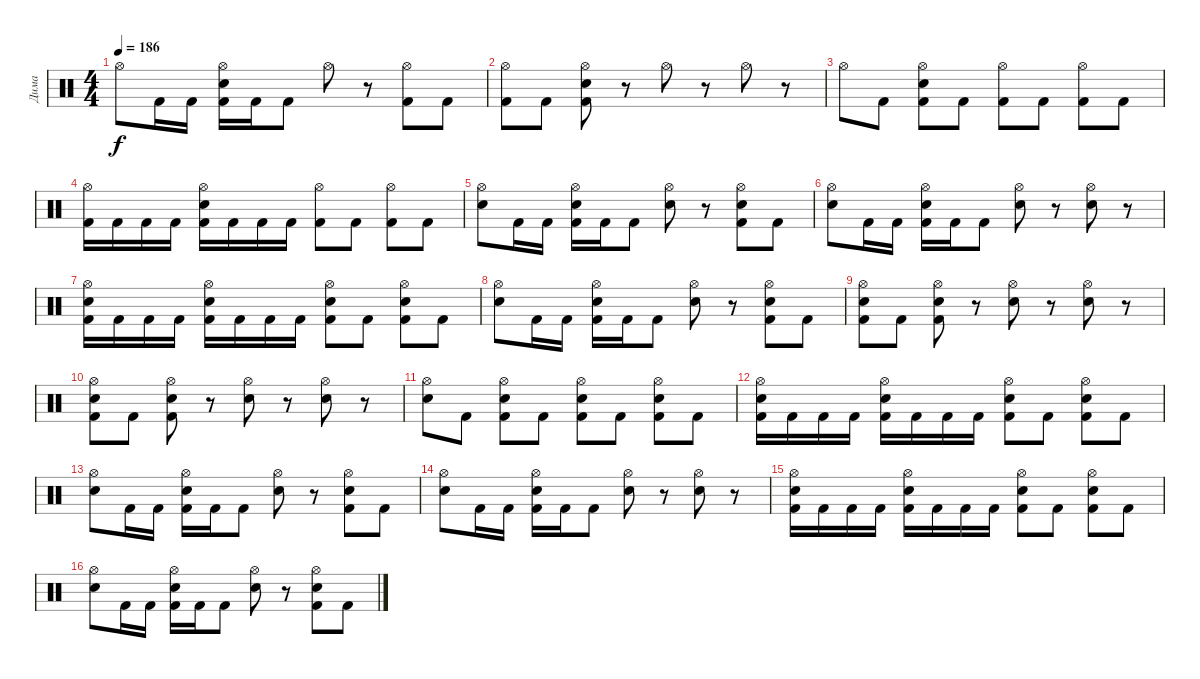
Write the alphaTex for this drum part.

\track ("Дима" "Дима") {instrument percussion}
\staff {score}
\articulation defaults
\ts (4 4)
\tempo 186
\clef neutral
\ks c "Hi-Hat (open)".8{dy f} "Kick (hit) 2".16 "Kick (hit) 2".16
("Hi-Hat (open)" "Snare (hit) 2" "Kick (hit) 2").16 "Kick (hit) 2".16 "Kick (hit) 2".8 "Hi-Hat (open)".8 r.8 ("Hi-Hat (open)" "Kick (hit) 2").8 "Kick (hit) 2".8 |
("Hi-Hat (open)" "Kick (hit) 2").8 "Kick (hit) 2".8 ("Hi-Hat (open)" "Snare (hit) 2" "Kick (hit) 2").8 r.8 "Hi-Hat (open)".8 r.8 "Hi-Hat (open)".8 r.8 |
"Hi-Hat (open)".8 "Kick (hit) 2".8 ("Hi-Hat (open)" "Snare (hit) 2" "Kick (hit) 2").8 "Kick (hit) 2".8 ("Hi-Hat (open)" "Kick (hit) 2").8 "Kick (hit) 2".8 ("Hi-Hat (open)" "Kick (hit) 2").8 "Kick (hit) 2".8 |
("Hi-Hat (open)" "Kick (hit) 2").16 "Kick (hit) 2".16 "Kick (hit) 2".16 "Kick (hit) 2".16 ("Hi-Hat (open)" "Snare (hit) 2" "Kick (hit) 2").16 "Kick (hit) 2".16 "Kick (hit) 2".16 "Kick (hit) 2".16 ("Hi-Hat (open)" "Kick (hit) 2").8 "Kick (hit) 2".8 ("Hi-Hat (open)" "Kick (hit) 2").8 "Kick (hit) 2".8 |
("Hi-Hat (open)" "Snare (hit) 2").8 "Kick (hit) 2".16 "Kick (hit) 2".16 ("Hi-Hat (open)" "Snare (hit) 2" "Kick (hit) 2").16 "Kick (hit) 2".16 "Kick (hit) 2".8 ("Hi-Hat (open)" "Snare (hit) 2").8 r.8 ("Hi-Hat (open)" "Snare (hit) 2" "Kick (hit) 2").8 "Kick (hit) 2".8 |
("Hi-Hat (open)" "Snare (hit) 2").8 "Kick (hit) 2".16 "Kick (hit) 2".16 ("Hi-Hat (open)" "Snare (hit) 2" "Kick (hit) 2").16 "Kick (hit) 2".16 "Kick (hit) 2".8 ("Hi-Hat (open)" "Snare (hit) 2").8 r.8 ("Hi-Hat (open)" "Snare (hit) 2").8 r.8 |
("Hi-Hat (open)" "Snare (hit) 2" "Kick (hit) 2").16 "Kick (hit) 2".16 "Kick (hit) 2".16 "Kick (hit) 2".16 ("Hi-Hat (open)" "Snare (hit) 2" "Kick (hit) 2").16 "Kick (hit) 2".16 "Kick (hit) 2".16 "Kick (hit) 2".16 ("Hi-Hat (open)" "Snare (hit) 2" "Kick (hit) 2").8 "Kick (hit) 2".8 ("Hi-Hat (open)" "Snare (hit) 2" "Kick (hit) 2").8 "Kick (hit) 2".8 |
("Hi-Hat (open)" "Snare (hit) 2").8 "Kick (hit) 2".16 "Kick (hit) 2".16 ("Hi-Hat (open)" "Snare (hit) 2" "Kick (hit) 2").16 "Kick (hit) 2".16 "Kick (hit) 2".8 ("Hi-Hat (open)" "Snare (hit) 2").8 r.8 ("Hi-Hat (open)" "Snare (hit) 2" "Kick (hit) 2").8 "Kick (hit) 2".8 |
("Hi-Hat (open)" "Snare (hit) 2" "Kick (hit) 2").8 "Kick (hit) 2".8 ("Hi-Hat (open)" "Snare (hit) 2" "Kick (hit) 2").8 r.8 ("Hi-Hat (open)" "Snare (hit) 2").8 r.8 ("Hi-Hat (open)" "Snare (hit) 2").8 r.8 |
("Hi-Hat (open)" "Snare (hit) 2" "Kick (hit) 2").8 "Kick (hit) 2".8 ("Hi-Hat (open)" "Snare (hit) 2" "Kick (hit) 2").8 r.8 ("Hi-Hat (open)" "Snare (hit) 2").8 r.8 ("Hi-Hat (open)" "Snare (hit) 2").8 r.8 |
("Hi-Hat (open)" "Snare (hit) 2").8 "Kick (hit) 2".8 ("Hi-Hat (open)" "Snare (hit) 2" "Kick (hit) 2").8 "Kick (hit) 2".8 ("Hi-Hat (open)" "Snare (hit) 2" "Kick (hit) 2").8 "Kick (hit) 2".8 ("Hi-Hat (open)" "Snare (hit) 2" "Kick (hit) 2").8 "Kick (hit) 2".8 |
("Hi-Hat (open)" "Snare (hit) 2" "Kick (hit) 2").16 "Kick (hit) 2".16 "Kick (hit) 2".16 "Kick (hit) 2".16 ("Hi-Hat (open)" "Snare (hit) 2" "Kick (hit) 2").16 "Kick (hit) 2".16 "Kick (hit) 2".16 "Kick (hit) 2".16 ("Hi-Hat (open)" "Snare (hit) 2" "Kick (hit) 2").8 "Kick (hit) 2".8 ("Hi-Hat (open)" "Snare (hit) 2" "Kick (hit) 2").8 "Kick (hit) 2".8 |
("Hi-Hat (open)" "Snare (hit) 2").8 "Kick (hit) 2".16 "Kick (hit) 2".16 ("Hi-Hat (open)" "Snare (hit) 2" "Kick (hit) 2").16 "Kick (hit) 2".16 "Kick (hit) 2".8 ("Hi-Hat (open)" "Snare (hit) 2").8 r.8 ("Hi-Hat (open)" "Snare (hit) 2" "Kick (hit) 2").8 "Kick (hit) 2".8 |
("Hi-Hat (open)" "Snare (hit) 2").8 "Kick (hit) 2".16 "Kick (hit) 2".16 ("Hi-Hat (open)" "Snare (hit) 2" "Kick (hit) 2").16 "Kick (hit) 2".16 "Kick (hit) 2".8 ("Hi-Hat (open)" "Snare (hit) 2").8 r.8 ("Hi-Hat (open)" "Snare (hit) 2").8 r.8 |
("Hi-Hat (open)" "Snare (hit) 2" "Kick (hit) 2").16 "Kick (hit) 2".16 "Kick (hit) 2".16 "Kick (hit) 2".16 ("Hi-Hat (open)" "Snare (hit) 2" "Kick (hit) 2").16 "Kick (hit) 2".16 "Kick (hit) 2".16 "Kick (hit) 2".16 ("Hi-Hat (open)" "Snare (hit) 2" "Kick (hit) 2").8 "Kick (hit) 2".8 ("Hi-Hat (open)" "Snare (hit) 2" "Kick (hit) 2").8 "Kick (hit) 2".8 |
("Hi-Hat (open)" "Snare (hit) 2").8 "Kick (hit) 2".16 "Kick (hit) 2".16 ("Hi-Hat (open)" "Snare (hit) 2" "Kick (hit) 2").16 "Kick (hit) 2".16 "Kick (hit) 2".8 ("Hi-Hat (open)" "Snare (hit) 2").8 r.8 ("Hi-Hat (open)" "Snare (hit) 2" "Kick (hit) 2").8 "Kick (hit) 2".8
